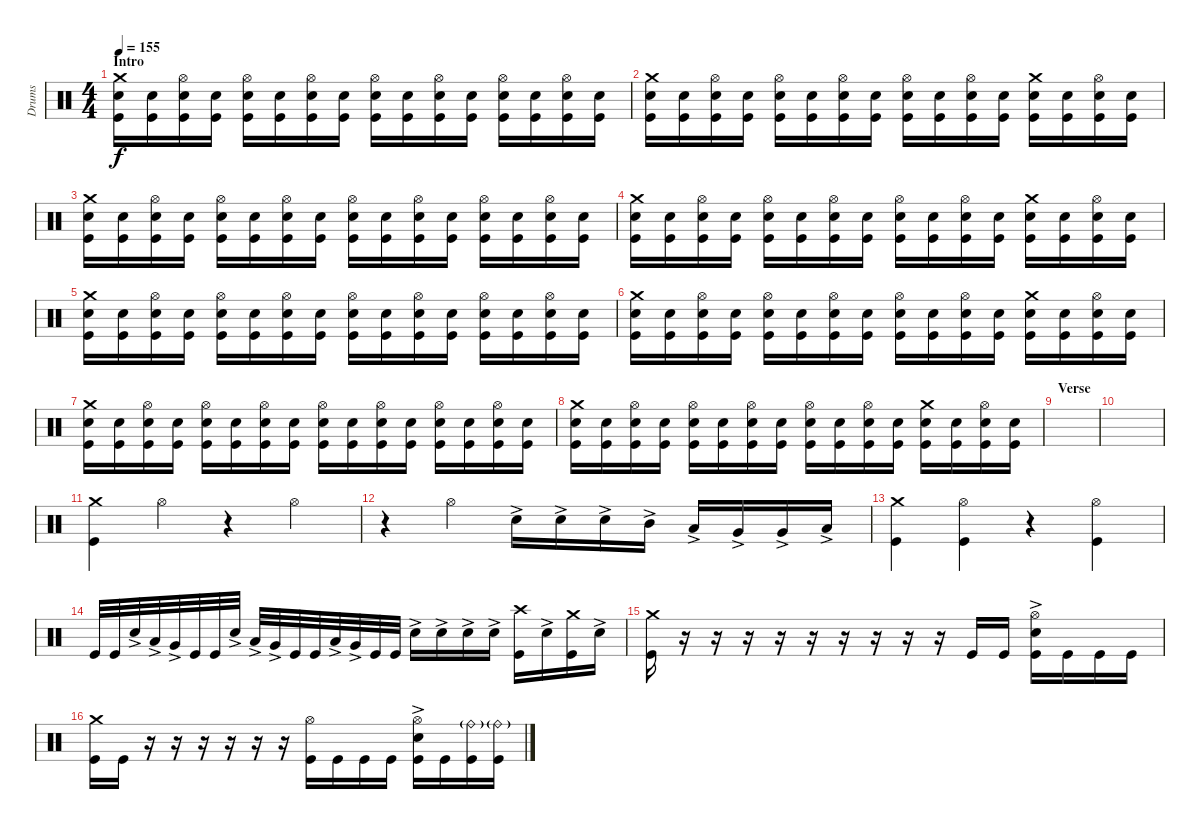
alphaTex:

\track ("Drums" "Drums") {instrument percussion}
\staff {score}
\articulation defaults
\ts (4 4)
\section ("" "Intro")
\tempo 155
\clef neutral
\ks c
("Kick (hit)" "Crash medium (hit)" "Snare (hit) 2").16{dy f} ("Kick (hit)" "Snare (hit) 2").16 ("Kick (hit)" "Hi-Hat (open)" "Snare (hit) 2").16 ("Kick (hit)" "Snare (hit) 2").16 ("Kick (hit)" "Hi-Hat (open)" "Snare (hit) 2").16 ("Kick (hit)" "Snare (hit) 2").16 ("Kick (hit)" "Hi-Hat (open)" "Snare (hit) 2").16 ("Kick (hit)" "Snare (hit) 2").16 ("Kick (hit)" "Hi-Hat (open)" "Snare (hit) 2").16 ("Kick (hit)" "Snare (hit) 2").16 ("Kick (hit)" "Hi-Hat (open)" "Snare (hit) 2").16 ("Kick (hit)" "Snare (hit) 2").16 ("Kick (hit)" "Hi-Hat (open)" "Snare (hit) 2").16 ("Kick (hit)" "Snare (hit) 2").16 ("Kick (hit)" "Hi-Hat (open)" "Snare (hit) 2").16 ("Kick (hit)" "Snare (hit) 2").16 |
("Kick (hit)" "Snare (hit) 2" "Crash medium (hit)").16 ("Kick (hit)" "Snare (hit) 2").16 ("Kick (hit)" "Hi-Hat (open)" "Snare (hit) 2").16 ("Kick (hit)" "Snare (hit) 2").16 ("Kick (hit)" "Hi-Hat (open)" "Snare (hit) 2").16 ("Kick (hit)" "Snare (hit) 2").16 ("Kick (hit)" "Hi-Hat (open)" "Snare (hit) 2").16 ("Kick (hit)" "Snare (hit) 2").16 ("Kick (hit)" "Hi-Hat (open)" "Snare (hit) 2").16 ("Kick (hit)" "Snare (hit) 2").16 ("Kick (hit)" "Hi-Hat (open)" "Snare (hit) 2").16 ("Kick (hit)" "Snare (hit) 2").16 ("Kick (hit)" "Snare (hit) 2" "Crash medium (hit)").16 ("Kick (hit)" "Snare (hit) 2").16 ("Kick (hit)" "Hi-Hat (open)" "Snare (hit) 2").16 ("Kick (hit)" "Snare (hit) 2").16 |
("Kick (hit)" "Crash medium (hit)" "Snare (hit) 2").16 ("Kick (hit)" "Snare (hit) 2").16 ("Kick (hit)" "Hi-Hat (open)" "Snare (hit) 2").16 ("Kick (hit)" "Snare (hit) 2").16 ("Kick (hit)" "Hi-Hat (open)" "Snare (hit) 2").16 ("Kick (hit)" "Snare (hit) 2").16 ("Kick (hit)" "Hi-Hat (open)" "Snare (hit) 2").16 ("Kick (hit)" "Snare (hit) 2").16 ("Kick (hit)" "Hi-Hat (open)" "Snare (hit) 2").16 ("Kick (hit)" "Snare (hit) 2").16 ("Kick (hit)" "Hi-Hat (open)" "Snare (hit) 2").16 ("Kick (hit)" "Snare (hit) 2").16 ("Kick (hit)" "Hi-Hat (open)" "Snare (hit) 2").16 ("Kick (hit)" "Snare (hit) 2").16 ("Kick (hit)" "Hi-Hat (open)" "Snare (hit) 2").16 ("Kick (hit)" "Snare (hit) 2").16 |
("Kick (hit)" "Snare (hit) 2" "Crash medium (hit)").16 ("Kick (hit)" "Snare (hit) 2").16 ("Kick (hit)" "Hi-Hat (open)" "Snare (hit) 2").16 ("Kick (hit)" "Snare (hit) 2").16 ("Kick (hit)" "Hi-Hat (open)" "Snare (hit) 2").16 ("Kick (hit)" "Snare (hit) 2").16 ("Kick (hit)" "Hi-Hat (open)" "Snare (hit) 2").16 ("Kick (hit)" "Snare (hit) 2").16 ("Kick (hit)" "Hi-Hat (open)" "Snare (hit) 2").16 ("Kick (hit)" "Snare (hit) 2").16 ("Kick (hit)" "Hi-Hat (open)" "Snare (hit) 2").16 ("Kick (hit)" "Snare (hit) 2").16 ("Kick (hit)" "Snare (hit) 2" "Crash medium (hit)").16 ("Kick (hit)" "Snare (hit) 2").16 ("Kick (hit)" "Hi-Hat (open)" "Snare (hit) 2").16 ("Kick (hit)" "Snare (hit) 2").16 |
("Kick (hit)" "Crash medium (hit)" "Snare (hit) 2").16 ("Kick (hit)" "Snare (hit) 2").16 ("Kick (hit)" "Hi-Hat (open)" "Snare (hit) 2").16 ("Kick (hit)" "Snare (hit) 2").16 ("Kick (hit)" "Hi-Hat (open)" "Snare (hit) 2").16 ("Kick (hit)" "Snare (hit) 2").16 ("Kick (hit)" "Hi-Hat (open)" "Snare (hit) 2").16 ("Kick (hit)" "Snare (hit) 2").16 ("Kick (hit)" "Hi-Hat (open)" "Snare (hit) 2").16 ("Kick (hit)" "Snare (hit) 2").16 ("Kick (hit)" "Hi-Hat (open)" "Snare (hit) 2").16 ("Kick (hit)" "Snare (hit) 2").16 ("Kick (hit)" "Hi-Hat (open)" "Snare (hit) 2").16 ("Kick (hit)" "Snare (hit) 2").16 ("Kick (hit)" "Hi-Hat (open)" "Snare (hit) 2").16 ("Kick (hit)" "Snare (hit) 2").16 |
("Kick (hit)" "Snare (hit) 2" "Crash medium (hit)").16 ("Kick (hit)" "Snare (hit) 2").16 ("Kick (hit)" "Hi-Hat (open)" "Snare (hit) 2").16 ("Kick (hit)" "Snare (hit) 2").16 ("Kick (hit)" "Hi-Hat (open)" "Snare (hit) 2").16 ("Kick (hit)" "Snare (hit) 2").16 ("Kick (hit)" "Hi-Hat (open)" "Snare (hit) 2").16 ("Kick (hit)" "Snare (hit) 2").16 ("Kick (hit)" "Hi-Hat (open)" "Snare (hit) 2").16 ("Kick (hit)" "Snare (hit) 2").16 ("Kick (hit)" "Hi-Hat (open)" "Snare (hit) 2").16 ("Kick (hit)" "Snare (hit) 2").16 ("Kick (hit)" "Snare (hit) 2" "Crash medium (hit)").16 ("Kick (hit)" "Snare (hit) 2").16 ("Kick (hit)" "Hi-Hat (open)" "Snare (hit) 2").16 ("Kick (hit)" "Snare (hit) 2").16 |
("Kick (hit)" "Crash medium (hit)" "Snare (hit) 2").16 ("Kick (hit)" "Snare (hit) 2").16 ("Kick (hit)" "Hi-Hat (open)" "Snare (hit) 2").16 ("Kick (hit)" "Snare (hit) 2").16 ("Kick (hit)" "Hi-Hat (open)" "Snare (hit) 2").16 ("Kick (hit)" "Snare (hit) 2").16 ("Kick (hit)" "Hi-Hat (open)" "Snare (hit) 2").16 ("Kick (hit)" "Snare (hit) 2").16 ("Kick (hit)" "Hi-Hat (open)" "Snare (hit) 2").16 ("Kick (hit)" "Snare (hit) 2").16 ("Kick (hit)" "Hi-Hat (open)" "Snare (hit) 2").16 ("Kick (hit)" "Snare (hit) 2").16 ("Kick (hit)" "Hi-Hat (open)" "Snare (hit) 2").16 ("Kick (hit)" "Snare (hit) 2").16 ("Kick (hit)" "Hi-Hat (open)" "Snare (hit) 2").16 ("Kick (hit)" "Snare (hit) 2").16 |
("Kick (hit)" "Snare (hit) 2" "Crash medium (hit)").16 ("Kick (hit)" "Snare (hit) 2").16 ("Kick (hit)" "Hi-Hat (open)" "Snare (hit) 2").16 ("Kick (hit)" "Snare (hit) 2").16 ("Kick (hit)" "Hi-Hat (open)" "Snare (hit) 2").16 ("Kick (hit)" "Snare (hit) 2").16 ("Kick (hit)" "Hi-Hat (open)" "Snare (hit) 2").16 ("Kick (hit)" "Snare (hit) 2").16 ("Kick (hit)" "Hi-Hat (open)" "Snare (hit) 2").16 ("Kick (hit)" "Snare (hit) 2").16 ("Kick (hit)" "Hi-Hat (open)" "Snare (hit) 2").16 ("Kick (hit)" "Snare (hit) 2").16 ("Kick (hit)" "Snare (hit) 2" "Crash medium (hit)").16 ("Kick (hit)" "Snare (hit) 2").16 ("Kick (hit)" "Hi-Hat (open)" "Snare (hit) 2").16 ("Kick (hit)" "Snare (hit) 2").16 |
\section ("" "Verse")
|
|
("Kick (hit)" "Crash medium (hit)").4 "Hi-Hat (open)".4 r.4 "Hi-Hat (open)".4 |
r.4 "Hi-Hat (open)".4 "Snare (hit) 2"{ac}.16 "Snare (hit) 2"{ac}.16 "Snare (hit) 2"{ac}.16 "Mid Tom (hit)"{ac}.16 "Low Tom (hit)"{ac}.16 "Very Low Tom (hit)"{ac}.16 "Very Low Tom (hit)"{ac}.16 "Low Floor Tom (hit)"{ac}.16 |
("Kick (hit)" "Crash medium (hit)").4 ("Hi-Hat (open)" "Kick (hit)").4 r.4 ("Hi-Hat (open)" "Kick (hit)").4 |
"Kick (hit)".32 "Kick (hit)".32 "Snare (hit) 2"{ac}.32 "Low Tom (hit)"{ac}.32 "Very Low Tom (hit)"{ac}.32 "Kick (hit)".32 "Kick (hit)".32 "Snare (hit) 2"{ac}.32 "Low Tom (hit)"{ac}.32 "Very Low Tom (hit)"{ac}.32 "Kick (hit)".32 "Kick (hit)".32 "Low Tom (hit)"{ac}.32 "Very Low Tom (hit)"{ac}.32 "Kick (hit)".32 "Kick (hit)".32 "Snare (hit) 2"{ac}.16 "Snare (hit) 2"{ac}.16 "Snare (hit) 2"{ac}.16 "Snare (hit) 2"{ac}.16 ("Kick (hit)" "Crash high (hit)").16 "Snare (hit) 2"{ac}.16 ("Kick (hit)" "Crash medium (hit)").16 "Snare (hit) 2"{ac}.16 |
("Kick (hit)" "Crash medium (hit)").16 r.16 r.16 r.16 r.16 r.16 r.16 r.16 r.16 r.16 "Kick (hit)".16 "Kick (hit)".16 ("Kick (hit)" "Hi-Hat (open)" "Snare (hit) 2"{ac}).16 "Kick (hit)".16 "Kick (hit)".16 "Kick (hit)".16 |
("Kick (hit)" "Crash medium (hit)").16 "Kick (hit)".16 r.16 r.16 r.16 r.16 r.16 r.16 ("Kick (hit)" "Hi-Hat (open)").16 "Kick (hit)".16 "Kick (hit)".16 "Kick (hit)".16 ("Kick (hit)" "Hi-Hat (open)" "Snare (hit) 2"{ac}).16 "Kick (hit)".16 ("Kick (hit)" "Ride (bell)"{g}).16 ("Kick (hit)" "Ride (bell)"{g}).16
